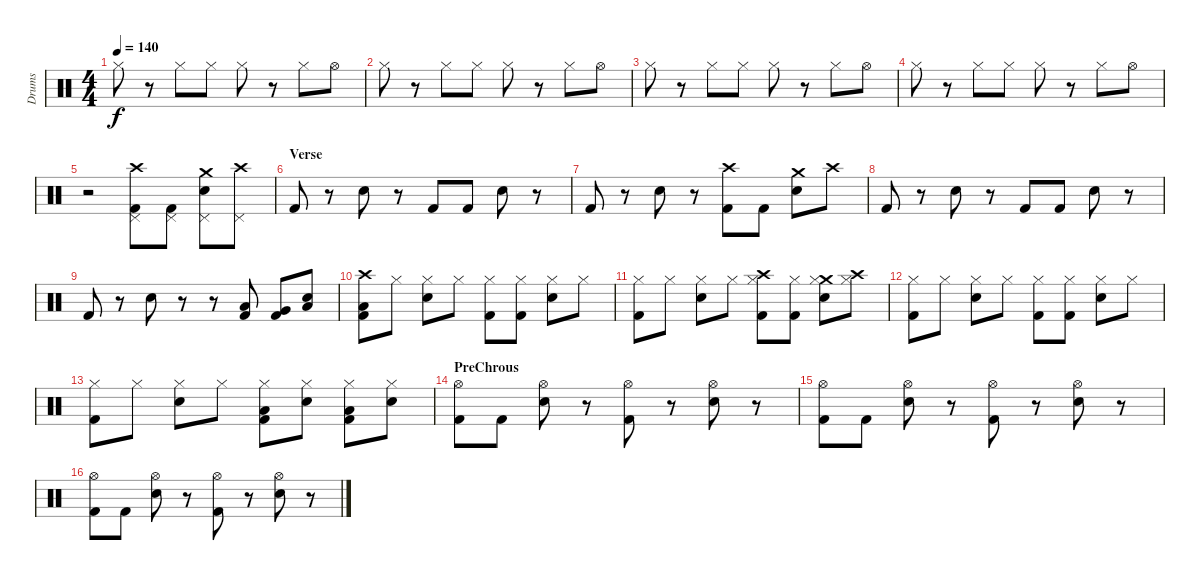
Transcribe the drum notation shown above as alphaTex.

\track ("Drums" "Drums") {instrument percussion}
\staff {score}
\articulation defaults
\ts (4 4)
\tempo 140
\clef neutral
\ks c "Hi-Hat (closed)".8{dy f}
r.8 "Hi-Hat (closed)".8 "Hi-Hat (closed)".8 "Hi-Hat (closed)".8 r.8 "Hi-Hat (closed)".8 "Hi-Hat (open)".8 |
"Hi-Hat (closed)".8 r.8 "Hi-Hat (closed)".8 "Hi-Hat (closed)".8 "Hi-Hat (closed)".8 r.8 "Hi-Hat (closed)".8 "Hi-Hat (open)".8 |
"Hi-Hat (closed)".8 r.8 "Hi-Hat (closed)".8 "Hi-Hat (closed)".8 "Hi-Hat (closed)".8 r.8 "Hi-Hat (closed)".8 "Hi-Hat (open)".8 |
"Hi-Hat (closed)".8 r.8 "Hi-Hat (closed)".8 "Hi-Hat (closed)".8 "Hi-Hat (closed)".8 r.8 "Hi-Hat (closed)".8 "Hi-Hat (open)".8 |
r.2 ("Crash high (hit)" "Pedal Hi-Hat (hit)" "Kick (hit) 2").8 ("Pedal Hi-Hat (hit)" "Kick (hit) 2").8 ("Crash medium (hit)" "Pedal Hi-Hat (hit)" "Electric Snare (hit)").8 ("Crash high (hit)" "Pedal Hi-Hat (hit)").8 |
\section ("" "Verse")
"Kick (hit) 2".8 r.8 "Electric Snare (hit)".8 r.8 "Kick (hit) 2".8 "Kick (hit) 2".8 "Electric Snare (hit)".8 r.8 |
"Kick (hit) 2".8 r.8 "Electric Snare (hit)".8 r.8 ("Crash high (hit)" "Kick (hit) 2").8 "Kick (hit) 2".8 ("Crash medium (hit)" "Electric Snare (hit)").8 "Crash high (hit)".8 |
"Kick (hit) 2".8 r.8 "Electric Snare (hit)".8 r.8 "Kick (hit) 2".8 "Kick (hit) 2".8 "Electric Snare (hit)".8 r.8 |
"Kick (hit) 2".8 r.8 "Electric Snare (hit)".8 r.8 r.8 ("Low Tom (hit)" "Kick (hit) 2").8 ("Very Low Tom (hit)" "Kick (hit) 2").8 ("Low Floor Tom (hit)" "Electric Snare (hit)").8 |
("Crash high (hit)" "Low Tom (hit)" "Kick (hit) 2").8 "Hi-Hat (closed)".8 ("Hi-Hat (closed)" "Electric Snare (hit)").8 "Hi-Hat (closed)".8 ("Hi-Hat (closed)" "Kick (hit) 2").8 ("Hi-Hat (closed)" "Kick (hit) 2").8 ("Hi-Hat (closed)" "Electric Snare (hit)").8 "Hi-Hat (closed)".8 |
("Hi-Hat (closed)" "Kick (hit) 2").8 "Hi-Hat (closed)".8 ("Hi-Hat (closed)" "Electric Snare (hit)").8 "Hi-Hat (closed)".8 ("Crash high (hit)" "Hi-Hat (closed)" "Kick (hit) 2").8 ("Hi-Hat (closed)" "Kick (hit) 2").8 ("Crash medium (hit)" "Hi-Hat (closed)" "Electric Snare (hit)").8 ("Crash high (hit)" "Hi-Hat (closed)").8 |
("Hi-Hat (closed)" "Kick (hit) 2").8 "Hi-Hat (closed)".8 ("Hi-Hat (closed)" "Electric Snare (hit)").8 "Hi-Hat (closed)".8 ("Hi-Hat (closed)" "Kick (hit) 2").8 ("Hi-Hat (closed)" "Kick (hit) 2").8 ("Hi-Hat (closed)" "Electric Snare (hit)").8 "Hi-Hat (closed)".8 |
("Hi-Hat (closed)" "Kick (hit) 2").8 "Hi-Hat (closed)".8 ("Hi-Hat (closed)" "Electric Snare (hit)").8 "Hi-Hat (closed)".8 ("Hi-Hat (closed)" "Low Floor Tom (hit)" "Kick (hit) 2").8 ("Hi-Hat (closed)" "Electric Snare (hit)").8 ("Hi-Hat (closed)" "Low Floor Tom (hit)" "Kick (hit) 2").8 ("Hi-Hat (closed)" "Electric Snare (hit)").8 |
\section ("" "PreChrous")
("Hi-Hat (open)" "Kick (hit) 2").8 "Kick (hit) 2".8 ("Hi-Hat (open)" "Electric Snare (hit)").8 r.8 ("Hi-Hat (open)" "Kick (hit) 2").8 r.8 ("Hi-Hat (open)" "Electric Snare (hit)").8 r.8 |
("Hi-Hat (open)" "Kick (hit) 2").8 "Kick (hit) 2".8 ("Hi-Hat (open)" "Electric Snare (hit)").8 r.8 ("Hi-Hat (open)" "Kick (hit) 2").8 r.8 ("Hi-Hat (open)" "Electric Snare (hit)").8 r.8 |
("Hi-Hat (open)" "Kick (hit) 2").8 "Kick (hit) 2".8 ("Hi-Hat (open)" "Electric Snare (hit)").8 r.8 ("Hi-Hat (open)" "Kick (hit) 2").8 r.8 ("Hi-Hat (open)" "Electric Snare (hit)").8 r.8
